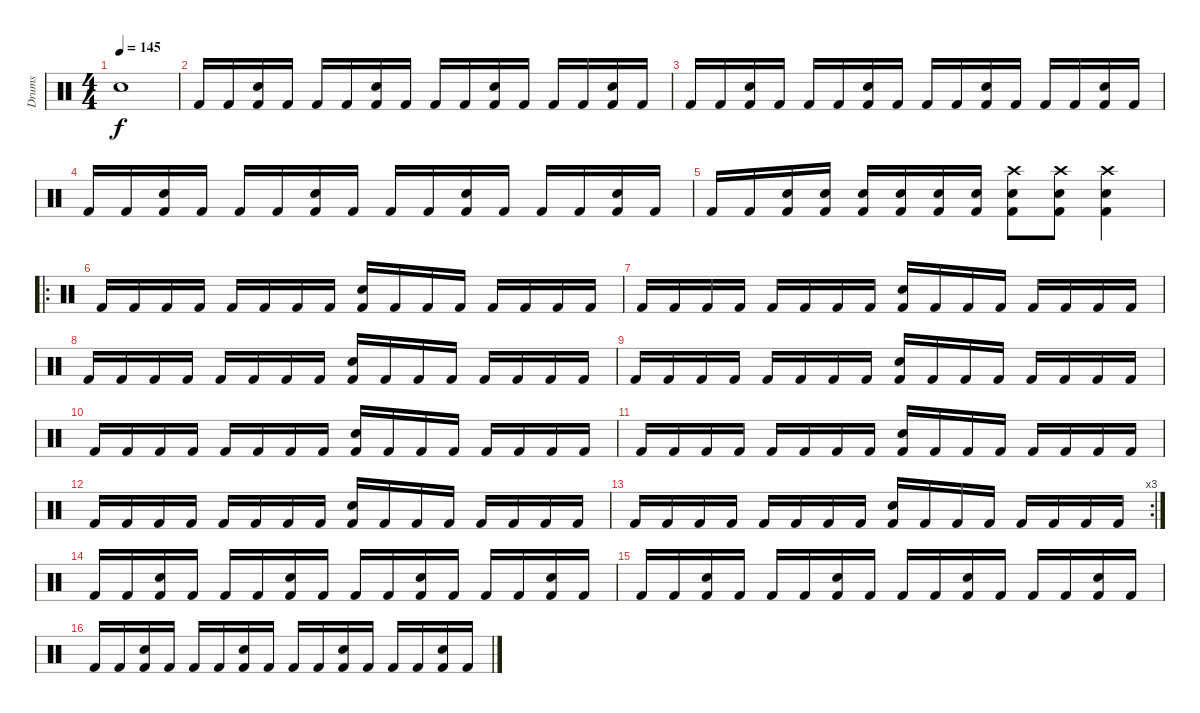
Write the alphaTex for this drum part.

\track ("Drums" "Drums") {instrument percussion}
\staff {score}
\articulation defaults
\ts (4 4)
\tempo 145
\clef neutral
\ks c "Snare (hit) 2".1{dy f}
|
"Kick (hit) 2".16 "Kick (hit) 2".16 ("Snare (hit) 2" "Kick (hit) 2").16 "Kick (hit) 2".16 "Kick (hit) 2".16 "Kick (hit) 2".16 ("Snare (hit) 2" "Kick (hit) 2").16 "Kick (hit) 2".16 "Kick (hit) 2".16 "Kick (hit) 2".16 ("Snare (hit) 2" "Kick (hit) 2").16 "Kick (hit) 2".16 "Kick (hit) 2".16 "Kick (hit) 2".16 ("Snare (hit) 2" "Kick (hit) 2").16 "Kick (hit) 2".16 |
"Kick (hit) 2".16 "Kick (hit) 2".16 ("Snare (hit) 2" "Kick (hit) 2").16 "Kick (hit) 2".16 "Kick (hit) 2".16 "Kick (hit) 2".16 ("Snare (hit) 2" "Kick (hit) 2").16 "Kick (hit) 2".16 "Kick (hit) 2".16 "Kick (hit) 2".16 ("Snare (hit) 2" "Kick (hit) 2").16 "Kick (hit) 2".16 "Kick (hit) 2".16 "Kick (hit) 2".16 ("Snare (hit) 2" "Kick (hit) 2").16 "Kick (hit) 2".16 |
"Kick (hit) 2".16 "Kick (hit) 2".16 ("Snare (hit) 2" "Kick (hit) 2").16 "Kick (hit) 2".16 "Kick (hit) 2".16 "Kick (hit) 2".16 ("Snare (hit) 2" "Kick (hit) 2").16 "Kick (hit) 2".16 "Kick (hit) 2".16 "Kick (hit) 2".16 ("Snare (hit) 2" "Kick (hit) 2").16 "Kick (hit) 2".16 "Kick (hit) 2".16 "Kick (hit) 2".16 ("Snare (hit) 2" "Kick (hit) 2").16 "Kick (hit) 2".16 |
"Kick (hit) 2".16 "Kick (hit) 2".16 ("Snare (hit) 2" "Kick (hit) 2").16 ("Snare (hit) 2" "Kick (hit) 2").16 ("Snare (hit) 2" "Kick (hit) 2").16 ("Snare (hit) 2" "Kick (hit) 2").16 ("Snare (hit) 2" "Kick (hit) 2").16 ("Snare (hit) 2" "Kick (hit) 2").16 ("Crash high (hit)" "Snare (hit) 2" "Kick (hit) 2").8 ("Crash high (hit)" "Snare (hit) 2" "Kick (hit) 2").8 ("Crash high (hit)" "Snare (hit) 2" "Kick (hit) 2").4 |
\ro "Kick (hit) 2".16 "Kick (hit) 2".16 "Kick (hit) 2".16 "Kick (hit) 2".16 "Kick (hit) 2".16 "Kick (hit) 2".16 "Kick (hit) 2".16 "Kick (hit) 2".16
("Snare (hit) 2" "Kick (hit) 2").16 "Kick (hit) 2".16 "Kick (hit) 2".16 "Kick (hit) 2".16 "Kick (hit) 2".16 "Kick (hit) 2".16 "Kick (hit) 2".16 "Kick (hit) 2".16 |
"Kick (hit) 2".16 "Kick (hit) 2".16 "Kick (hit) 2".16 "Kick (hit) 2".16 "Kick (hit) 2".16 "Kick (hit) 2".16 "Kick (hit) 2".16 "Kick (hit) 2".16 ("Snare (hit) 2" "Kick (hit) 2").16 "Kick (hit) 2".16 "Kick (hit) 2".16 "Kick (hit) 2".16 "Kick (hit) 2".16 "Kick (hit) 2".16 "Kick (hit) 2".16 "Kick (hit) 2".16 |
"Kick (hit) 2".16 "Kick (hit) 2".16 "Kick (hit) 2".16 "Kick (hit) 2".16 "Kick (hit) 2".16 "Kick (hit) 2".16 "Kick (hit) 2".16 "Kick (hit) 2".16 ("Snare (hit) 2" "Kick (hit) 2").16 "Kick (hit) 2".16 "Kick (hit) 2".16 "Kick (hit) 2".16 "Kick (hit) 2".16 "Kick (hit) 2".16 "Kick (hit) 2".16 "Kick (hit) 2".16 |
"Kick (hit) 2".16 "Kick (hit) 2".16 "Kick (hit) 2".16 "Kick (hit) 2".16 "Kick (hit) 2".16 "Kick (hit) 2".16 "Kick (hit) 2".16 "Kick (hit) 2".16 ("Snare (hit) 2" "Kick (hit) 2").16 "Kick (hit) 2".16 "Kick (hit) 2".16 "Kick (hit) 2".16 "Kick (hit) 2".16 "Kick (hit) 2".16 "Kick (hit) 2".16 "Kick (hit) 2".16 |
"Kick (hit) 2".16 "Kick (hit) 2".16 "Kick (hit) 2".16 "Kick (hit) 2".16 "Kick (hit) 2".16 "Kick (hit) 2".16 "Kick (hit) 2".16 "Kick (hit) 2".16 ("Snare (hit) 2" "Kick (hit) 2").16 "Kick (hit) 2".16 "Kick (hit) 2".16 "Kick (hit) 2".16 "Kick (hit) 2".16 "Kick (hit) 2".16 "Kick (hit) 2".16 "Kick (hit) 2".16 |
"Kick (hit) 2".16 "Kick (hit) 2".16 "Kick (hit) 2".16 "Kick (hit) 2".16 "Kick (hit) 2".16 "Kick (hit) 2".16 "Kick (hit) 2".16 "Kick (hit) 2".16 ("Snare (hit) 2" "Kick (hit) 2").16 "Kick (hit) 2".16 "Kick (hit) 2".16 "Kick (hit) 2".16 "Kick (hit) 2".16 "Kick (hit) 2".16 "Kick (hit) 2".16 "Kick (hit) 2".16 |
"Kick (hit) 2".16 "Kick (hit) 2".16 "Kick (hit) 2".16 "Kick (hit) 2".16 "Kick (hit) 2".16 "Kick (hit) 2".16 "Kick (hit) 2".16 "Kick (hit) 2".16 ("Snare (hit) 2" "Kick (hit) 2").16 "Kick (hit) 2".16 "Kick (hit) 2".16 "Kick (hit) 2".16 "Kick (hit) 2".16 "Kick (hit) 2".16 "Kick (hit) 2".16 "Kick (hit) 2".16 |
\rc 3 "Kick (hit) 2".16 "Kick (hit) 2".16 "Kick (hit) 2".16 "Kick (hit) 2".16 "Kick (hit) 2".16 "Kick (hit) 2".16 "Kick (hit) 2".16 "Kick (hit) 2".16
("Snare (hit) 2" "Kick (hit) 2").16 "Kick (hit) 2".16 "Kick (hit) 2".16 "Kick (hit) 2".16 "Kick (hit) 2".16 "Kick (hit) 2".16 "Kick (hit) 2".16 "Kick (hit) 2".16 |
"Kick (hit) 2".16 "Kick (hit) 2".16 ("Snare (hit) 2" "Kick (hit) 2").16 "Kick (hit) 2".16 "Kick (hit) 2".16 "Kick (hit) 2".16 ("Snare (hit) 2" "Kick (hit) 2").16 "Kick (hit) 2".16 "Kick (hit) 2".16 "Kick (hit) 2".16 ("Snare (hit) 2" "Kick (hit) 2").16 "Kick (hit) 2".16 "Kick (hit) 2".16 "Kick (hit) 2".16 ("Snare (hit) 2" "Kick (hit) 2").16 "Kick (hit) 2".16 |
"Kick (hit) 2".16 "Kick (hit) 2".16 ("Snare (hit) 2" "Kick (hit) 2").16 "Kick (hit) 2".16 "Kick (hit) 2".16 "Kick (hit) 2".16 ("Snare (hit) 2" "Kick (hit) 2").16 "Kick (hit) 2".16 "Kick (hit) 2".16 "Kick (hit) 2".16 ("Snare (hit) 2" "Kick (hit) 2").16 "Kick (hit) 2".16 "Kick (hit) 2".16 "Kick (hit) 2".16 ("Snare (hit) 2" "Kick (hit) 2").16 "Kick (hit) 2".16 |
"Kick (hit) 2".16 "Kick (hit) 2".16 ("Snare (hit) 2" "Kick (hit) 2").16 "Kick (hit) 2".16 "Kick (hit) 2".16 "Kick (hit) 2".16 ("Snare (hit) 2" "Kick (hit) 2").16 "Kick (hit) 2".16 "Kick (hit) 2".16 "Kick (hit) 2".16 ("Snare (hit) 2" "Kick (hit) 2").16 "Kick (hit) 2".16 "Kick (hit) 2".16 "Kick (hit) 2".16 ("Snare (hit) 2" "Kick (hit) 2").16 "Kick (hit) 2".16
